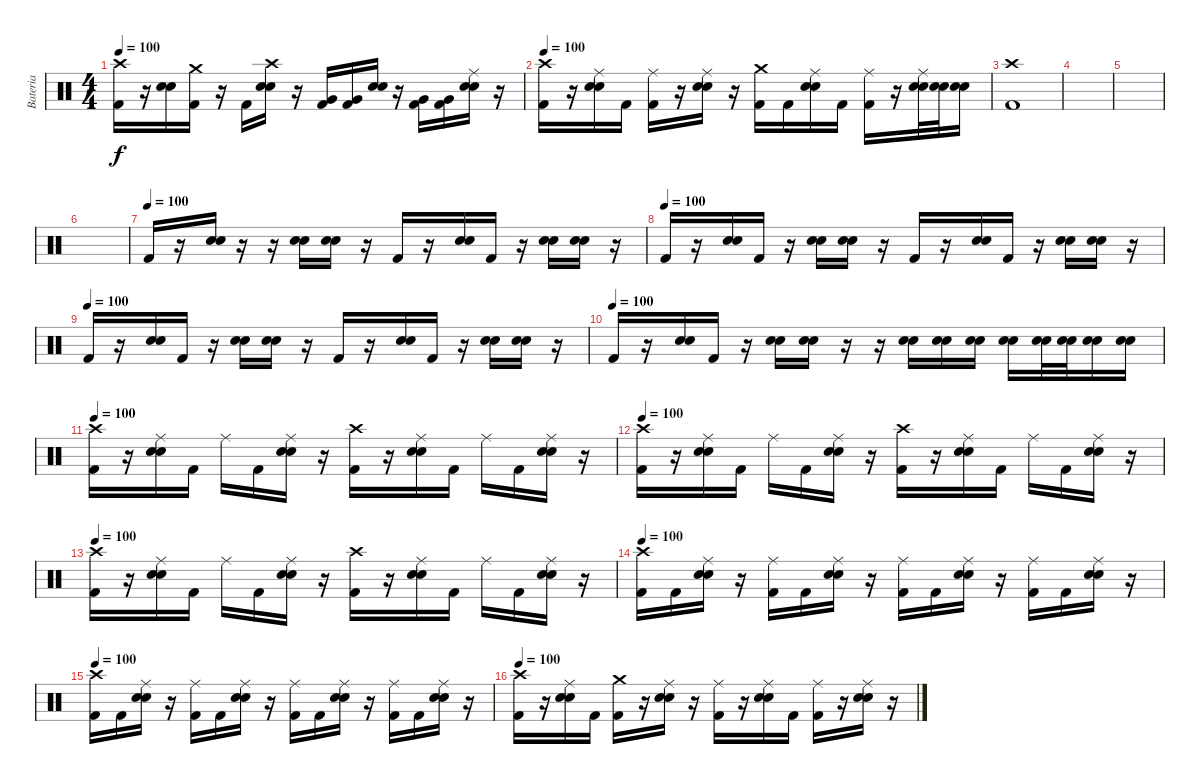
\track ("Bateria" "Bateria") {instrument percussion}
\staff {score}
\articulation defaults
\ts (4 4)
\tempo 100
\clef neutral
\ks c
("Crash high (hit)" "Kick (hit) 2").16{dy f} r.16 ("Snare (hit) 2" "Electric Snare (hit)").16 ("Crash medium (hit)" "Kick (hit) 2").16 r.16 "Kick (hit) 2".16 ("Crash high (hit)" "Snare (hit) 2" "Electric Snare (hit)").16 r.16 ("Very Low Tom (hit)" "Kick (hit) 2").16 ("Very Low Tom (hit)" "Kick (hit) 2").16 ("Snare (hit) 2" "Electric Snare (hit)").16 r.16 ("Very Low Tom (hit)" "Kick (hit) 2").16 ("Very Low Tom (hit)" "Kick (hit) 2").16 ("Ride (middle)" "Snare (hit) 2" "Electric Snare (hit)").16 r.16 |
\tempo 100
("Crash high (hit)" "Kick (hit) 2").16 r.16 ("Ride (middle)" "Snare (hit) 2" "Electric Snare (hit)").16 "Kick (hit) 2".16 ("Ride (middle)" "Kick (hit) 2").16 r.16 ("Ride (middle)" "Snare (hit) 2" "Electric Snare (hit)").16 r.16 ("Crash medium (hit)" "Kick (hit) 2").16 "Kick (hit) 2".16 ("Ride (middle)" "Snare (hit) 2" "Electric Snare (hit)").16 "Kick (hit) 2".16 ("Ride (middle)" "Kick (hit) 2").16 r.16 ("Ride (middle)" "Snare (hit) 2" "Electric Snare (hit)").32 ("Snare (hit) 2" "Electric Snare (hit)").32 ("Snare (hit) 2" "Electric Snare (hit)").16 |
("Crash high (hit)" "Kick (hit) 2").1 |
|
|
|
\tempo (100)
"Kick (hit) 2".16 r.16 ("Snare (hit) 2" "Electric Snare (hit)").16 r.16 r.16 ("Snare (hit) 2" "Electric Snare (hit)").16 ("Snare (hit) 2" "Electric Snare (hit)").16 r.16 "Kick (hit) 2".16 r.16 ("Snare (hit) 2" "Electric Snare (hit)").16 "Kick (hit) 2".16 r.16 ("Snare (hit) 2" "Electric Snare (hit)").16 ("Snare (hit) 2" "Electric Snare (hit)").16 r.16 |
\tempo (100)
"Kick (hit) 2".16 r.16 ("Snare (hit) 2" "Electric Snare (hit)").16 "Kick (hit) 2".16 r.16 ("Snare (hit) 2" "Electric Snare (hit)").16 ("Snare (hit) 2" "Electric Snare (hit)").16 r.16 "Kick (hit) 2".16 r.16 ("Snare (hit) 2" "Electric Snare (hit)").16 "Kick (hit) 2".16 r.16 ("Snare (hit) 2" "Electric Snare (hit)").16 ("Snare (hit) 2" "Electric Snare (hit)").16 r.16 |
\tempo (100)
"Kick (hit) 2".16 r.16 ("Snare (hit) 2" "Electric Snare (hit)").16 "Kick (hit) 2".16 r.16 ("Snare (hit) 2" "Electric Snare (hit)").16 ("Snare (hit) 2" "Electric Snare (hit)").16 r.16 "Kick (hit) 2".16 r.16 ("Snare (hit) 2" "Electric Snare (hit)").16 "Kick (hit) 2".16 r.16 ("Snare (hit) 2" "Electric Snare (hit)").16 ("Snare (hit) 2" "Electric Snare (hit)").16 r.16 |
\tempo (100)
"Kick (hit) 2".16 r.16 ("Snare (hit) 2" "Electric Snare (hit)").16 "Kick (hit) 2".16 r.16 ("Snare (hit) 2" "Electric Snare (hit)").16 ("Snare (hit) 2" "Electric Snare (hit)").16 r.16 r.16 ("Snare (hit) 2" "Electric Snare (hit)").16 ("Snare (hit) 2" "Electric Snare (hit)").16 ("Snare (hit) 2" "Electric Snare (hit)").16 ("Snare (hit) 2" "Electric Snare (hit)").16 ("Snare (hit) 2" "Electric Snare (hit)").32 ("Snare (hit) 2" "Electric Snare (hit)").32 ("Snare (hit) 2" "Electric Snare (hit)").16 ("Snare (hit) 2" "Electric Snare (hit)").16 |
\tempo 100
("Crash high (hit)" "Kick (hit) 2").16 r.16 ("Ride (middle)" "Snare (hit) 2" "Electric Snare (hit)").16 "Kick (hit) 2".16 "Ride (middle)".16 "Kick (hit) 2".16 ("Ride (middle)" "Snare (hit) 2" "Electric Snare (hit)").16 r.16 ("Crash high (hit)" "Kick (hit) 2").16 r.16 ("Ride (middle)" "Snare (hit) 2" "Electric Snare (hit)").16 "Kick (hit) 2".16 "Ride (middle)".16 "Kick (hit) 2".16 ("Ride (middle)" "Snare (hit) 2" "Electric Snare (hit)").16 r.16 |
\tempo 100
("Crash high (hit)" "Kick (hit) 2").16 r.16 ("Ride (middle)" "Snare (hit) 2" "Electric Snare (hit)").16 "Kick (hit) 2".16 "Ride (middle)".16 "Kick (hit) 2".16 ("Ride (middle)" "Snare (hit) 2" "Electric Snare (hit)").16 r.16 ("Crash high (hit)" "Kick (hit) 2").16 r.16 ("Ride (middle)" "Snare (hit) 2" "Electric Snare (hit)").16 "Kick (hit) 2".16 "Ride (middle)".16 "Kick (hit) 2".16 ("Ride (middle)" "Snare (hit) 2" "Electric Snare (hit)").16 r.16 |
\tempo 100
("Crash high (hit)" "Kick (hit) 2").16 r.16 ("Ride (middle)" "Snare (hit) 2" "Electric Snare (hit)").16 "Kick (hit) 2".16 "Ride (middle)".16 "Kick (hit) 2".16 ("Ride (middle)" "Snare (hit) 2" "Electric Snare (hit)").16 r.16 ("Crash high (hit)" "Kick (hit) 2").16 r.16 ("Ride (middle)" "Snare (hit) 2" "Electric Snare (hit)").16 "Kick (hit) 2".16 "Ride (middle)".16 "Kick (hit) 2".16 ("Ride (middle)" "Snare (hit) 2" "Electric Snare (hit)").16 r.16 |
\tempo 100
("Crash high (hit)" "Kick (hit) 2").16 "Kick (hit) 2".16 ("Ride (middle)" "Snare (hit) 2" "Electric Snare (hit)").16 r.16 ("Ride (middle)" "Kick (hit) 2").16 "Kick (hit) 2".16 ("Ride (middle)" "Snare (hit) 2" "Electric Snare (hit)").16 r.16 ("Ride (middle)" "Kick (hit) 2").16 "Kick (hit) 2".16 ("Ride (middle)" "Snare (hit) 2" "Electric Snare (hit)").16 r.16 ("Ride (middle)" "Kick (hit) 2").16 "Kick (hit) 2".16 ("Ride (middle)" "Snare (hit) 2" "Electric Snare (hit)").16 r.16 |
\tempo 100
("Crash high (hit)" "Kick (hit) 2").16 "Kick (hit) 2".16 ("Ride (middle)" "Snare (hit) 2" "Electric Snare (hit)").16 r.16 ("Ride (middle)" "Kick (hit) 2").16 "Kick (hit) 2".16 ("Ride (middle)" "Snare (hit) 2" "Electric Snare (hit)").16 r.16 ("Ride (middle)" "Kick (hit) 2").16 "Kick (hit) 2".16 ("Ride (middle)" "Snare (hit) 2" "Electric Snare (hit)").16 r.16 ("Ride (middle)" "Kick (hit) 2").16 "Kick (hit) 2".16 ("Ride (middle)" "Snare (hit) 2" "Electric Snare (hit)").16 r.16 |
\tempo 100
("Crash high (hit)" "Kick (hit) 2").16 r.16 ("Ride (middle)" "Snare (hit) 2" "Electric Snare (hit)").16 "Kick (hit) 2".16 ("Crash medium (hit)" "Kick (hit) 2").16 r.16 ("Ride (middle)" "Snare (hit) 2" "Electric Snare (hit)").16 r.16 ("Ride (middle)" "Kick (hit) 2").16 r.16 ("Ride (middle)" "Snare (hit) 2" "Electric Snare (hit)").16 "Kick (hit) 2".16 ("Ride (middle)" "Kick (hit) 2").16 r.16 ("Ride (middle)" "Snare (hit) 2" "Electric Snare (hit)").16 r.16
